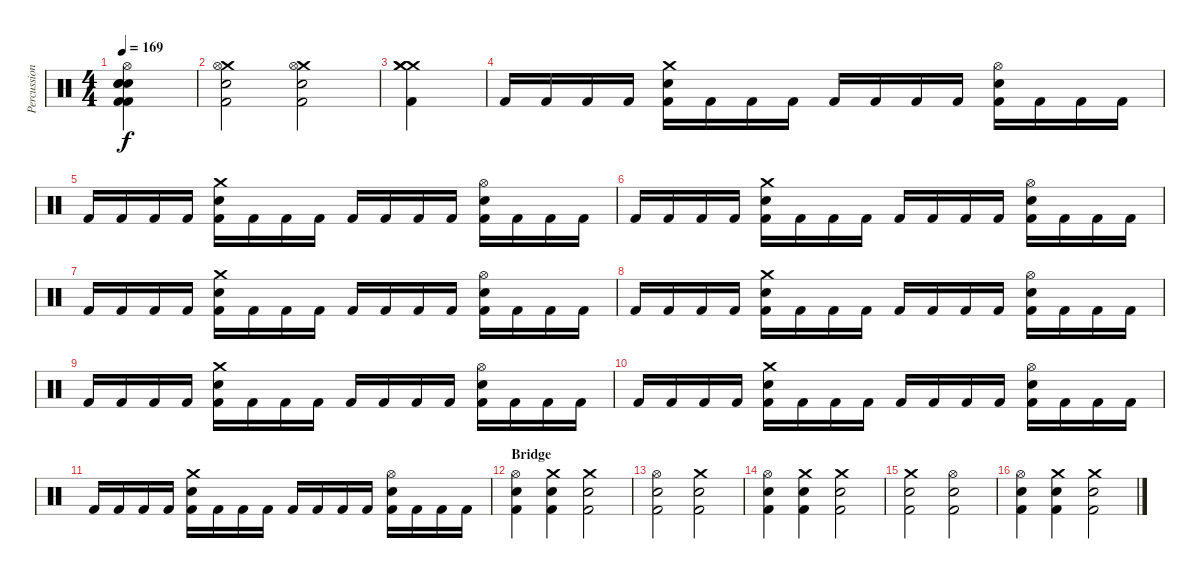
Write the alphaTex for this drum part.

\track ("Percussion" "Percussion") {instrument percussion}
\staff {score}
\articulation defaults
\ts (4 4)
\tempo 169
\clef neutral
\ks c
("Hi-Hat (open)" "Electric Snare (hit)" "Snare (hit) 2" "Snare (hit) 2" "Kick (hit) 2" "Kick (hit) 2").4{dy f} |
("Crash medium (hit)" "Hi-Hat (open)" "Snare (hit) 2" "Kick (hit) 2").2 ("Crash medium (hit)" "Hi-Hat (open)" "Electric Snare (hit)" "Kick (hit) 2").2 |
("Crash medium (hit)" "Crash medium (hit)" "Crash medium (hit)" "Kick (hit) 2").4 |
"Kick (hit) 2".16 "Kick (hit) 2".16 "Kick (hit) 2".16 "Kick (hit) 2".16 ("Crash medium (hit)" "Electric Snare (hit)" "Kick (hit) 2").16 "Kick (hit) 2".16 "Kick (hit) 2".16 "Kick (hit) 2".16 "Kick (hit) 2".16 "Kick (hit) 2".16 "Kick (hit) 2".16 "Kick (hit) 2".16 ("Hi-Hat (open)" "Snare (hit) 2" "Kick (hit) 2").16 "Kick (hit) 2".16 "Kick (hit) 2".16 "Kick (hit) 2".16 |
"Kick (hit) 2".16 "Kick (hit) 2".16 "Kick (hit) 2".16 "Kick (hit) 2".16 ("Crash medium (hit)" "Electric Snare (hit)" "Kick (hit) 2").16 "Kick (hit) 2".16 "Kick (hit) 2".16 "Kick (hit) 2".16 "Kick (hit) 2".16 "Kick (hit) 2".16 "Kick (hit) 2".16 "Kick (hit) 2".16 ("Hi-Hat (open)" "Snare (hit) 2" "Kick (hit) 2").16 "Kick (hit) 2".16 "Kick (hit) 2".16 "Kick (hit) 2".16 |
"Kick (hit) 2".16 "Kick (hit) 2".16 "Kick (hit) 2".16 "Kick (hit) 2".16 ("Crash medium (hit)" "Electric Snare (hit)" "Kick (hit) 2").16 "Kick (hit) 2".16 "Kick (hit) 2".16 "Kick (hit) 2".16 "Kick (hit) 2".16 "Kick (hit) 2".16 "Kick (hit) 2".16 "Kick (hit) 2".16 ("Hi-Hat (open)" "Snare (hit) 2" "Kick (hit) 2").16 "Kick (hit) 2".16 "Kick (hit) 2".16 "Kick (hit) 2".16 |
"Kick (hit) 2".16 "Kick (hit) 2".16 "Kick (hit) 2".16 "Kick (hit) 2".16 ("Crash medium (hit)" "Electric Snare (hit)" "Kick (hit) 2").16 "Kick (hit) 2".16 "Kick (hit) 2".16 "Kick (hit) 2".16 "Kick (hit) 2".16 "Kick (hit) 2".16 "Kick (hit) 2".16 "Kick (hit) 2".16 ("Hi-Hat (open)" "Snare (hit) 2" "Kick (hit) 2").16 "Kick (hit) 2".16 "Kick (hit) 2".16 "Kick (hit) 2".16 |
"Kick (hit) 2".16 "Kick (hit) 2".16 "Kick (hit) 2".16 "Kick (hit) 2".16 ("Crash medium (hit)" "Electric Snare (hit)" "Kick (hit) 2").16 "Kick (hit) 2".16 "Kick (hit) 2".16 "Kick (hit) 2".16 "Kick (hit) 2".16 "Kick (hit) 2".16 "Kick (hit) 2".16 "Kick (hit) 2".16 ("Hi-Hat (open)" "Snare (hit) 2" "Kick (hit) 2").16 "Kick (hit) 2".16 "Kick (hit) 2".16 "Kick (hit) 2".16 |
"Kick (hit) 2".16 "Kick (hit) 2".16 "Kick (hit) 2".16 "Kick (hit) 2".16 ("Crash medium (hit)" "Electric Snare (hit)" "Kick (hit) 2").16 "Kick (hit) 2".16 "Kick (hit) 2".16 "Kick (hit) 2".16 "Kick (hit) 2".16 "Kick (hit) 2".16 "Kick (hit) 2".16 "Kick (hit) 2".16 ("Hi-Hat (open)" "Snare (hit) 2" "Kick (hit) 2").16 "Kick (hit) 2".16 "Kick (hit) 2".16 "Kick (hit) 2".16 |
"Kick (hit) 2".16 "Kick (hit) 2".16 "Kick (hit) 2".16 "Kick (hit) 2".16 ("Crash medium (hit)" "Electric Snare (hit)" "Kick (hit) 2").16 "Kick (hit) 2".16 "Kick (hit) 2".16 "Kick (hit) 2".16 "Kick (hit) 2".16 "Kick (hit) 2".16 "Kick (hit) 2".16 "Kick (hit) 2".16 ("Hi-Hat (open)" "Snare (hit) 2" "Kick (hit) 2").16 "Kick (hit) 2".16 "Kick (hit) 2".16 "Kick (hit) 2".16 |
"Kick (hit) 2".16 "Kick (hit) 2".16 "Kick (hit) 2".16 "Kick (hit) 2".16 ("Crash medium (hit)" "Electric Snare (hit)" "Kick (hit) 2").16 "Kick (hit) 2".16 "Kick (hit) 2".16 "Kick (hit) 2".16 "Kick (hit) 2".16 "Kick (hit) 2".16 "Kick (hit) 2".16 "Kick (hit) 2".16 ("Hi-Hat (open)" "Snare (hit) 2" "Kick (hit) 2").16 "Kick (hit) 2".16 "Kick (hit) 2".16 "Kick (hit) 2".16 |
\section ("" "Bridge")
("Hi-Hat (open)" "Snare (hit) 2" "Kick (hit) 2").4 ("Crash medium (hit)" "Snare (hit) 2" "Kick (hit) 2").4 ("Crash medium (hit)" "Snare (hit) 2" "Kick (hit) 2").2 |
("Hi-Hat (open)" "Snare (hit) 2" "Kick (hit) 2").2 ("Crash medium (hit)" "Snare (hit) 2" "Kick (hit) 2").2 |
("Hi-Hat (open)" "Snare (hit) 2" "Kick (hit) 2").4 ("Crash medium (hit)" "Snare (hit) 2" "Kick (hit) 2").4 ("Crash medium (hit)" "Snare (hit) 2" "Kick (hit) 2").2 |
("Crash medium (hit)" "Snare (hit) 2" "Kick (hit) 2").2 ("Hi-Hat (open)" "Snare (hit) 2" "Kick (hit) 2").2 |
("Hi-Hat (open)" "Snare (hit) 2" "Kick (hit) 2").4 ("Crash medium (hit)" "Snare (hit) 2" "Kick (hit) 2").4 ("Crash medium (hit)" "Snare (hit) 2" "Kick (hit) 2").2
